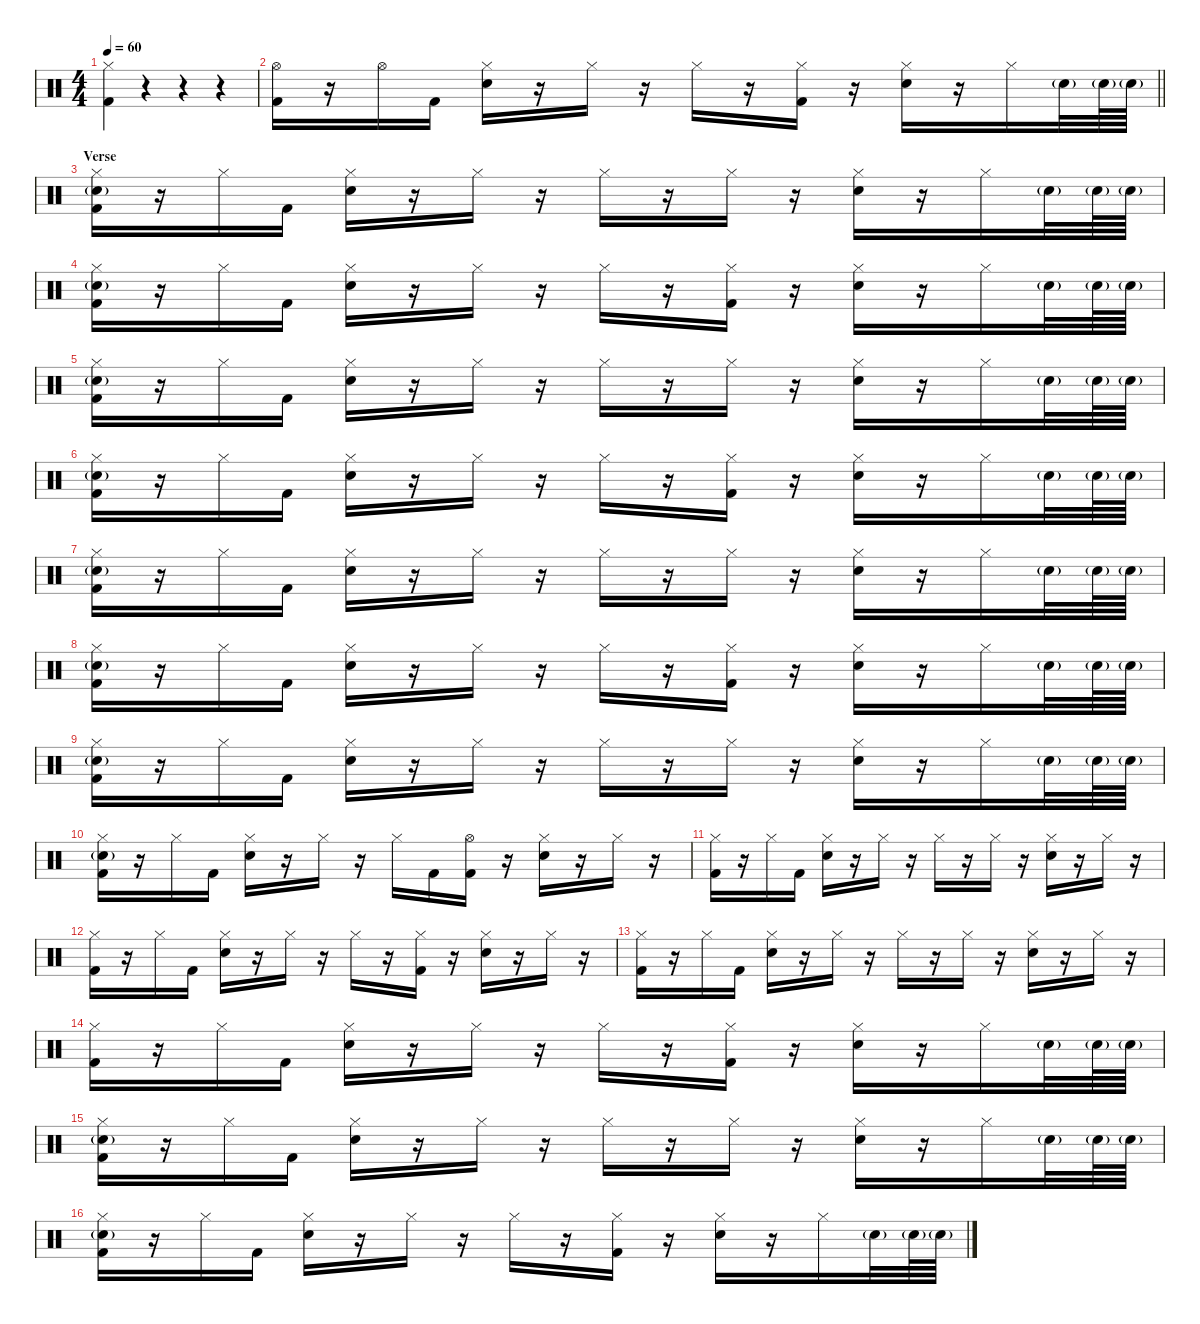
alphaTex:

\defaultSystemsLayout 4
\hideDynamics
\bracketExtendMode nobrackets
\singleTrackTrackNamePolicy hidden
\multiTrackTrackNamePolicy hidden
\firstSystemTrackNameMode fullname
\firstSystemTrackNameOrientation horizontal
\otherSystemsTrackNameOrientation horizontal
\track ("Gene Hoglan" "drm.") {instrument percussion}
\staff {score}
\articulation defaults
\ts (4 4)
\tempo 60
\clef neutral
\ks c
("Hi-Hat (closed)" "Kick (hit) 2").4{dy f beam Down} r.4{beam Down} r.4{beam Down} r.4{beam Down} |
\barLineRight lightlight
("Hi-Hat (open)" "Kick (hit) 2").16{beam Down} r.16{beam Down} "Hi-Hat (open)".16{beam Down} "Kick (hit) 2".16{beam Down} ("Hi-Hat (closed)" "Snare (hit) 2").16{beam Down} r.16{beam Down} "Hi-Hat (closed)".16{beam Down} r.16{beam Down} "Hi-Hat (closed)".16{beam Down} r.16{beam Down} ("Hi-Hat (closed)" "Kick (hit) 2").16{beam Down} r.16{beam Down} ("Hi-Hat (closed)" "Snare (hit) 2").16{beam Down} r.16{beam Down} "Hi-Hat (closed)".16{beam Down} "Snare (hit) 2"{g}.32{beam Down} "Snare (hit) 2"{g}.64{beam Down} "Snare (hit) 2"{g}.64{beam Down} |
\section ("" "Verse")
("Hi-Hat (closed)" "Snare (hit) 2"{g} "Kick (hit) 2").16{beam Down} r.16{beam Down} "Hi-Hat (closed)".16{beam Down} "Kick (hit) 2".16{beam Down} ("Hi-Hat (closed)" "Snare (hit) 2").16{beam Down} r.16{beam Down} "Hi-Hat (closed)".16{beam Down} r.16{beam Down} "Hi-Hat (closed)".16{beam Down} r.16{beam Down} "Hi-Hat (closed)".16{beam Down} r.16{beam Down} ("Hi-Hat (closed)" "Snare (hit) 2").16{beam Down} r.16{beam Down} "Hi-Hat (closed)".16{beam Down} "Snare (hit) 2"{g}.32{beam Down} "Snare (hit) 2"{g}.64{beam Down} "Snare (hit) 2"{g}.64{beam Down} |
("Hi-Hat (closed)" "Snare (hit) 2"{g} "Kick (hit) 2").16{beam Down} r.16{beam Down} "Hi-Hat (closed)".16{beam Down} "Kick (hit) 2".16{beam Down} ("Hi-Hat (closed)" "Snare (hit) 2").16{beam Down} r.16{beam Down} "Hi-Hat (closed)".16{beam Down} r.16{beam Down} "Hi-Hat (closed)".16{beam Down} r.16{beam Down} ("Hi-Hat (closed)" "Kick (hit) 2").16{beam Down} r.16{beam Down} ("Hi-Hat (closed)" "Snare (hit) 2").16{beam Down} r.16{beam Down} "Hi-Hat (closed)".16{beam Down} "Snare (hit) 2"{g}.32{beam Down} "Snare (hit) 2"{g}.64{beam Down} "Snare (hit) 2"{g}.64{beam Down} |
("Hi-Hat (closed)" "Snare (hit) 2"{g} "Kick (hit) 2").16{beam Down} r.16{beam Down} "Hi-Hat (closed)".16{beam Down} "Kick (hit) 2".16{beam Down} ("Hi-Hat (closed)" "Snare (hit) 2").16{beam Down} r.16{beam Down} "Hi-Hat (closed)".16{beam Down} r.16{beam Down} "Hi-Hat (closed)".16{beam Down} r.16{beam Down} "Hi-Hat (closed)".16{beam Down} r.16{beam Down} ("Hi-Hat (closed)" "Snare (hit) 2").16{beam Down} r.16{beam Down} "Hi-Hat (closed)".16{beam Down} "Snare (hit) 2"{g}.32{beam Down} "Snare (hit) 2"{g}.64{beam Down} "Snare (hit) 2"{g}.64{beam Down} |
("Hi-Hat (closed)" "Snare (hit) 2"{g} "Kick (hit) 2").16{beam Down} r.16{beam Down} "Hi-Hat (closed)".16{beam Down} "Kick (hit) 2".16{beam Down} ("Hi-Hat (closed)" "Snare (hit) 2").16{beam Down} r.16{beam Down} "Hi-Hat (closed)".16{beam Down} r.16{beam Down} "Hi-Hat (closed)".16{beam Down} r.16{beam Down} ("Hi-Hat (closed)" "Kick (hit) 2").16{beam Down} r.16{beam Down} ("Hi-Hat (closed)" "Snare (hit) 2").16{beam Down} r.16{beam Down} "Hi-Hat (closed)".16{beam Down} "Snare (hit) 2"{g}.32{beam Down} "Snare (hit) 2"{g}.64{beam Down} "Snare (hit) 2"{g}.64{beam Down} |
("Hi-Hat (closed)" "Snare (hit) 2"{g} "Kick (hit) 2").16{beam Down} r.16{beam Down} "Hi-Hat (closed)".16{beam Down} "Kick (hit) 2".16{beam Down} ("Hi-Hat (closed)" "Snare (hit) 2").16{beam Down} r.16{beam Down} "Hi-Hat (closed)".16{beam Down} r.16{beam Down} "Hi-Hat (closed)".16{beam Down} r.16{beam Down} "Hi-Hat (closed)".16{beam Down} r.16{beam Down} ("Hi-Hat (closed)" "Snare (hit) 2").16{beam Down} r.16{beam Down} "Hi-Hat (closed)".16{beam Down} "Snare (hit) 2"{g}.32{beam Down} "Snare (hit) 2"{g}.64{beam Down} "Snare (hit) 2"{g}.64{beam Down} |
("Hi-Hat (closed)" "Snare (hit) 2"{g} "Kick (hit) 2").16{beam Down} r.16{beam Down} "Hi-Hat (closed)".16{beam Down} "Kick (hit) 2".16{beam Down} ("Hi-Hat (closed)" "Snare (hit) 2").16{beam Down} r.16{beam Down} "Hi-Hat (closed)".16{beam Down} r.16{beam Down} "Hi-Hat (closed)".16{beam Down} r.16{beam Down} ("Hi-Hat (closed)" "Kick (hit) 2").16{beam Down} r.16{beam Down} ("Hi-Hat (closed)" "Snare (hit) 2").16{beam Down} r.16{beam Down} "Hi-Hat (closed)".16{beam Down} "Snare (hit) 2"{g}.32{beam Down} "Snare (hit) 2"{g}.64{beam Down} "Snare (hit) 2"{g}.64{beam Down} |
("Hi-Hat (closed)" "Snare (hit) 2"{g} "Kick (hit) 2").16{beam Down} r.16{beam Down} "Hi-Hat (closed)".16{beam Down} "Kick (hit) 2".16{beam Down} ("Hi-Hat (closed)" "Snare (hit) 2").16{beam Down} r.16{beam Down} "Hi-Hat (closed)".16{beam Down} r.16{beam Down} "Hi-Hat (closed)".16{beam Down} r.16{beam Down} "Hi-Hat (closed)".16{beam Down} r.16{beam Down} ("Hi-Hat (closed)" "Snare (hit) 2").16{beam Down} r.16{beam Down} "Hi-Hat (closed)".16{beam Down} "Snare (hit) 2"{g}.32{beam Down} "Snare (hit) 2"{g}.64{beam Down} "Snare (hit) 2"{g}.64{beam Down} |
("Hi-Hat (closed)" "Snare (hit) 2"{g} "Kick (hit) 2").16{beam Down} r.16{beam Down} "Hi-Hat (closed)".16{beam Down} "Kick (hit) 2".16{beam Down} ("Hi-Hat (closed)" "Snare (hit) 2").16{beam Down} r.16{beam Down} "Hi-Hat (closed)".16{beam Down} r.16{beam Down} "Hi-Hat (closed)".16{beam Down} "Kick (hit) 2".16{beam Down} ("Hi-Hat (open)" "Kick (hit) 2").16{beam Down} r.16{beam Down} ("Hi-Hat (closed)" "Snare (hit) 2").16{beam Down} r.16{beam Down} "Hi-Hat (closed)".16{beam Down} r.16{beam Down} |
("Hi-Hat (closed)" "Kick (hit) 2").16{beam Down} r.16{beam Down} "Hi-Hat (closed)".16{beam Down} "Kick (hit) 2".16{beam Down} ("Hi-Hat (closed)" "Snare (hit) 2").16{beam Down} r.16{beam Down} "Hi-Hat (closed)".16{beam Down} r.16{beam Down} "Hi-Hat (closed)".16{beam Down} r.16{beam Down} "Hi-Hat (closed)".16{beam Down} r.16{beam Down} ("Hi-Hat (closed)" "Snare (hit) 2").16{beam Down} r.16{beam Down} "Hi-Hat (closed)".16{beam Down} r.16{beam Down} |
("Hi-Hat (closed)" "Kick (hit) 2").16{beam Down} r.16{beam Down} "Hi-Hat (closed)".16{beam Down} "Kick (hit) 2".16{beam Down} ("Hi-Hat (closed)" "Snare (hit) 2").16{beam Down} r.16{beam Down} "Hi-Hat (closed)".16{beam Down} r.16{beam Down} "Hi-Hat (closed)".16{beam Down} r.16{beam Down} ("Hi-Hat (closed)" "Kick (hit) 2").16{beam Down} r.16{beam Down} ("Hi-Hat (closed)" "Snare (hit) 2").16{beam Down} r.16{beam Down} "Hi-Hat (closed)".16{beam Down} r.16{beam Down} |
("Hi-Hat (closed)" "Kick (hit) 2").16{beam Down} r.16{beam Down} "Hi-Hat (closed)".16{beam Down} "Kick (hit) 2".16{beam Down} ("Hi-Hat (closed)" "Snare (hit) 2").16{beam Down} r.16{beam Down} "Hi-Hat (closed)".16{beam Down} r.16{beam Down} "Hi-Hat (closed)".16{beam Down} r.16{beam Down} "Hi-Hat (closed)".16{beam Down} r.16{beam Down} ("Hi-Hat (closed)" "Snare (hit) 2").16{beam Down} r.16{beam Down} "Hi-Hat (closed)".16{beam Down} r.16{beam Down} |
("Hi-Hat (closed)" "Kick (hit) 2").16{beam Down} r.16{beam Down} "Hi-Hat (closed)".16{beam Down} "Kick (hit) 2".16{beam Down} ("Hi-Hat (closed)" "Snare (hit) 2").16{beam Down} r.16{beam Down} "Hi-Hat (closed)".16{beam Down} r.16{beam Down} "Hi-Hat (closed)".16{beam Down} r.16{beam Down} ("Hi-Hat (closed)" "Kick (hit) 2").16{beam Down} r.16{beam Down} ("Hi-Hat (closed)" "Snare (hit) 2").16{beam Down} r.16{beam Down} "Hi-Hat (closed)".16{beam Down} "Snare (hit) 2"{g}.32{beam Down} "Snare (hit) 2"{g}.64{beam Down} "Snare (hit) 2"{g}.64{beam Down} |
("Hi-Hat (closed)" "Snare (hit) 2"{g} "Kick (hit) 2").16{beam Down} r.16{beam Down} "Hi-Hat (closed)".16{beam Down} "Kick (hit) 2".16{beam Down} ("Hi-Hat (closed)" "Snare (hit) 2").16{beam Down} r.16{beam Down} "Hi-Hat (closed)".16{beam Down} r.16{beam Down} "Hi-Hat (closed)".16{beam Down} r.16{beam Down} "Hi-Hat (closed)".16{beam Down} r.16{beam Down} ("Hi-Hat (closed)" "Snare (hit) 2").16{beam Down} r.16{beam Down} "Hi-Hat (closed)".16{beam Down} "Snare (hit) 2"{g}.32{beam Down} "Snare (hit) 2"{g}.64{beam Down} "Snare (hit) 2"{g}.64{beam Down} |
("Hi-Hat (closed)" "Snare (hit) 2"{g} "Kick (hit) 2").16{beam Down} r.16{beam Down} "Hi-Hat (closed)".16{beam Down} "Kick (hit) 2".16{beam Down} ("Hi-Hat (closed)" "Snare (hit) 2").16{beam Down} r.16{beam Down} "Hi-Hat (closed)".16{beam Down} r.16{beam Down} "Hi-Hat (closed)".16{beam Down} r.16{beam Down} ("Hi-Hat (closed)" "Kick (hit) 2").16{beam Down} r.16{beam Down} ("Hi-Hat (closed)" "Snare (hit) 2").16{beam Down} r.16{beam Down} "Hi-Hat (closed)".16{beam Down} "Snare (hit) 2"{g}.32{beam Down} "Snare (hit) 2"{g}.64{beam Down} "Snare (hit) 2"{g}.64{beam Down}
